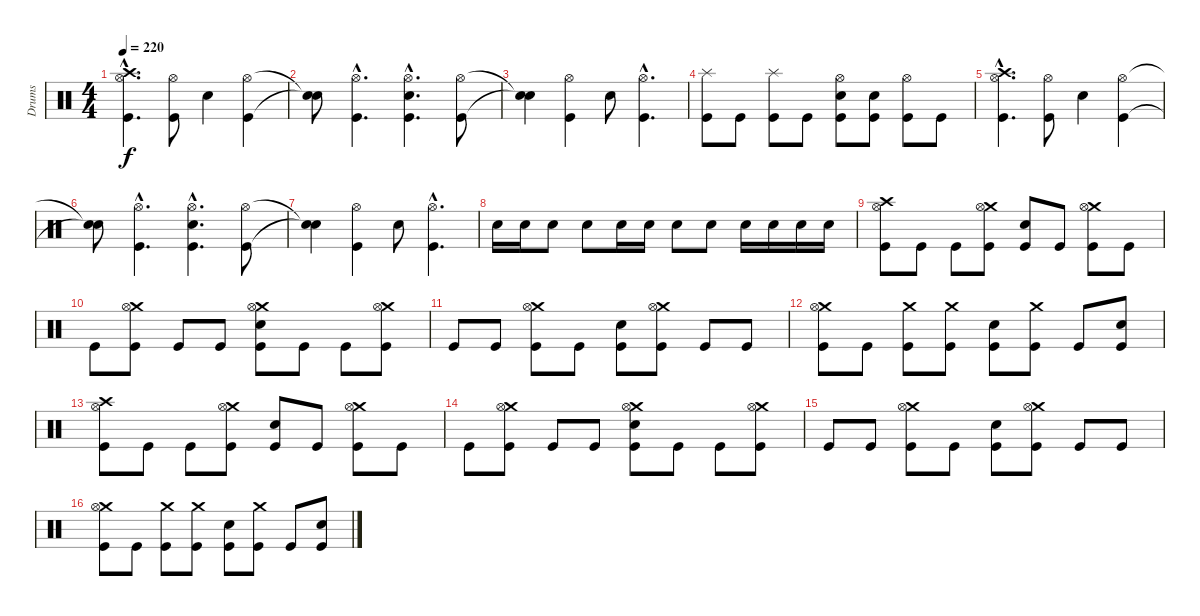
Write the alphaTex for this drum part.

\track ("Drums" "Drums") {instrument percussion}
\staff {score}
\articulation defaults
\ts (4 4)
\tempo 220
\clef neutral
\ks c
("Crash high (hit)"{hac} "Hi-Hat (open)"{hac} "Kick (hit)"{hac}).4{d dy f} ("Hi-Hat (open)" "Kick (hit)").8 "Electric Snare (hit)".4 ("Hi-Hat (open)" "Kick (hit)").4 |
("Snare (hit)"{t} "Snare (hit)"{t}).8 ("Hi-Hat (open)"{hac} "Kick (hit)"{hac}).4{d} ("Hi-Hat (open)"{hac} "Electric Snare (hit)"{hac} "Kick (hit)"{hac}).4{d} ("Hi-Hat (open)" "Kick (hit)").8 |
("Snare (hit)"{t} "Snare (hit)"{t}).4 ("Hi-Hat (open)" "Kick (hit)").4 "Electric Snare (hit)".8 ("Hi-Hat (open)"{hac} "Kick (hit)"{hac}).4{d} |
("Splash (hit)" "Kick (hit)").8 "Kick (hit)".8 ("Splash (hit)" "Kick (hit)").8 "Kick (hit)".8 ("Hi-Hat (open)" "Electric Snare (hit)" "Kick (hit)").8 ("Electric Snare (hit)" "Kick (hit)").8 ("Hi-Hat (open)" "Kick (hit)").8 "Kick (hit)".8 |
("Crash high (hit)"{hac} "Hi-Hat (open)"{hac} "Kick (hit)"{hac}).4{d} ("Hi-Hat (open)" "Kick (hit)").8 "Electric Snare (hit)".4 ("Hi-Hat (open)" "Kick (hit)").4 |
("Snare (hit)"{t} "Snare (hit)"{t}).8 ("Hi-Hat (open)"{hac} "Kick (hit)"{hac}).4{d} ("Hi-Hat (open)"{hac} "Electric Snare (hit)"{hac} "Kick (hit)"{hac}).4{d} ("Hi-Hat (open)" "Kick (hit)").8 |
("Snare (hit)"{t} "Snare (hit)"{t}).4 ("Hi-Hat (open)" "Kick (hit)").4 "Electric Snare (hit)".8 ("Hi-Hat (open)"{hac} "Kick (hit)"{hac}).4{d} |
"Electric Snare (hit)".16 "Electric Snare (hit)".16 "Electric Snare (hit)".8 "Electric Snare (hit)".8 "Electric Snare (hit)".16 "Electric Snare (hit)".16 "Electric Snare (hit)".8 "Electric Snare (hit)".8 "Electric Snare (hit)".16 "Electric Snare (hit)".16 "Electric Snare (hit)".16 "Electric Snare (hit)".16 |
("Crash high (hit)" "Hi-Hat (open)" "Kick (hit)").8 "Kick (hit)".8 "Kick (hit)".8 ("Crash medium (hit)" "Hi-Hat (open)" "Kick (hit)").8 ("Electric Snare (hit)" "Kick (hit)").8 "Kick (hit)".8 ("Crash medium (hit)" "Hi-Hat (open)" "Kick (hit)").8 "Kick (hit)".8 |
"Kick (hit)".8 ("Crash medium (hit)" "Hi-Hat (open)" "Kick (hit)").8 "Kick (hit)".8 "Kick (hit)".8 ("Crash medium (hit)" "Hi-Hat (open)" "Electric Snare (hit)" "Kick (hit)").8 "Kick (hit)".8 "Kick (hit)".8 ("Crash medium (hit)" "Hi-Hat (open)" "Kick (hit)").8 |
"Kick (hit)".8 "Kick (hit)".8 ("Crash medium (hit)" "Hi-Hat (open)" "Kick (hit)").8 "Kick (hit)".8 ("Electric Snare (hit)" "Kick (hit)").8 ("Crash medium (hit)" "Hi-Hat (open)" "Kick (hit)").8 "Kick (hit)".8 "Kick (hit)".8 |
("Crash medium (hit)" "Hi-Hat (open)" "Kick (hit)").8 "Kick (hit)".8 ("Crash medium (hit)" "Kick (hit)").8 ("Crash medium (hit)" "Kick (hit)").8 ("Electric Snare (hit)" "Kick (hit)").8 ("Crash medium (hit)" "Kick (hit)").8 "Kick (hit)".8 ("Electric Snare (hit)" "Kick (hit)").8 |
("Crash high (hit)" "Hi-Hat (open)" "Kick (hit)").8 "Kick (hit)".8 "Kick (hit)".8 ("Crash medium (hit)" "Hi-Hat (open)" "Kick (hit)").8 ("Electric Snare (hit)" "Kick (hit)").8 "Kick (hit)".8 ("Crash medium (hit)" "Hi-Hat (open)" "Kick (hit)").8 "Kick (hit)".8 |
"Kick (hit)".8 ("Crash medium (hit)" "Hi-Hat (open)" "Kick (hit)").8 "Kick (hit)".8 "Kick (hit)".8 ("Crash medium (hit)" "Hi-Hat (open)" "Electric Snare (hit)" "Kick (hit)").8 "Kick (hit)".8 "Kick (hit)".8 ("Crash medium (hit)" "Hi-Hat (open)" "Kick (hit)").8 |
"Kick (hit)".8 "Kick (hit)".8 ("Crash medium (hit)" "Hi-Hat (open)" "Kick (hit)").8 "Kick (hit)".8 ("Electric Snare (hit)" "Kick (hit)").8 ("Crash medium (hit)" "Hi-Hat (open)" "Kick (hit)").8 "Kick (hit)".8 "Kick (hit)".8 |
("Crash medium (hit)" "Hi-Hat (open)" "Kick (hit)").8 "Kick (hit)".8 ("Crash medium (hit)" "Kick (hit)").8 ("Crash medium (hit)" "Kick (hit)").8 ("Electric Snare (hit)" "Kick (hit)").8 ("Crash medium (hit)" "Kick (hit)").8 "Kick (hit)".8 ("Electric Snare (hit)" "Kick (hit)").8
